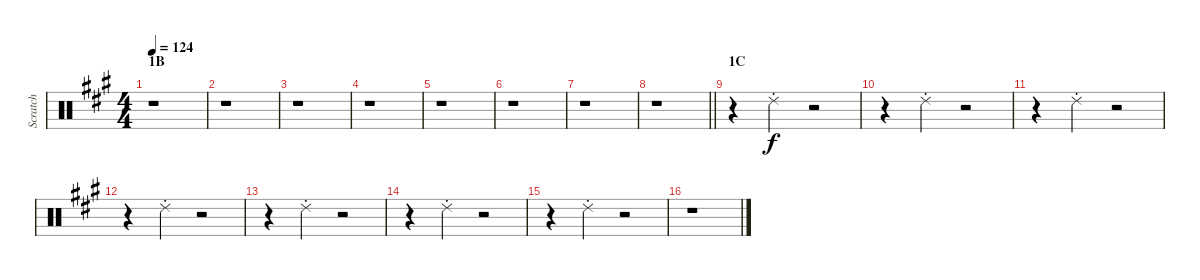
\track ("Scratch" "Scratch") {instrument percussion}
\staff {score}
\articulation defaults
\ts (4 4)
\section ("" "1B")
\tempo 124
\clef neutral
\ks a
r.1{dy f} |
r.1 |
r.1 |
r.1 |
r.1 |
r.1 |
r.1 |
\barLineRight lightlight
r.1 |
\section ("" "1C")
r.4 "Ride (choke) 2".4 r.2 |
r.4 "Ride (choke) 2".4 r.2 |
r.4 "Ride (choke) 2".4 r.2 |
r.4 "Ride (choke) 2".4 r.2 |
r.4 "Ride (choke) 2".4 r.2 |
r.4 "Ride (choke) 2".4 r.2 |
r.4 "Ride (choke) 2".4 r.2 |
r.1
